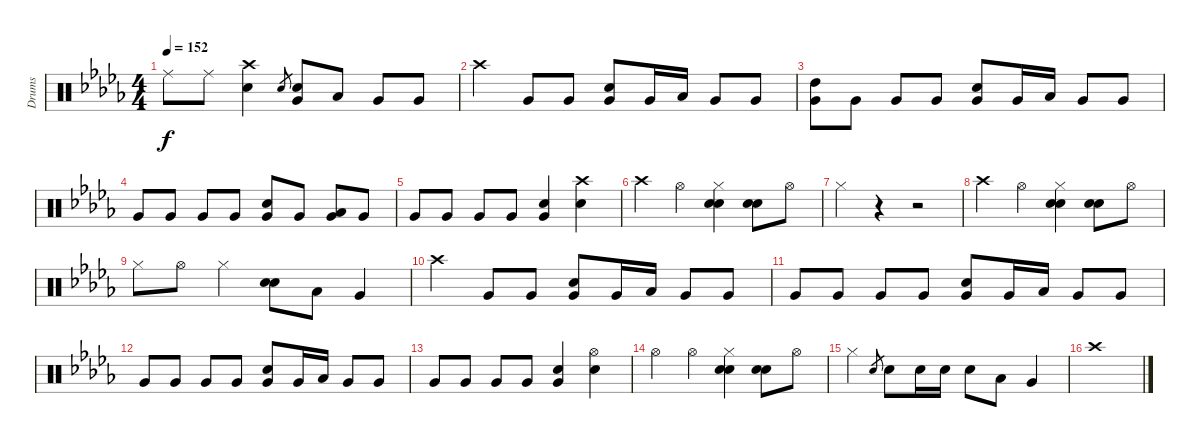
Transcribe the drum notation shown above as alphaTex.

\track ("Drums" "Drums") {instrument percussion}
\staff {score}
\articulation defaults
\ts (4 4)
\tempo 152
\clef neutral
\ks db "Ride (middle)".8{dy f} "Ride (middle)".8
("Crash high (hit)" "Snare (hit) 2").4 "Snare (hit) 2".8{gr} ("Snare (hit) 2" "Very Low Tom (hit)").8 "Low Tom (hit)".8 "Very Low Tom (hit)".8 "Very Low Tom (hit)".8 |
"Crash high (hit)".4 "Very Low Tom (hit)".8 "Very Low Tom (hit)".8 ("Snare (hit) 2" "Very Low Tom (hit)").8 "Very Low Tom (hit)".16 "Low Tom (hit)".16 "Very Low Tom (hit)".8 "Very Low Tom (hit)".8 |
("High Tom (hit)" "Very Low Tom (hit)").8 "Very Low Tom (hit)".8 "Very Low Tom (hit)".8 "Very Low Tom (hit)".8 ("Snare (hit) 2" "Very Low Tom (hit)").8 "Very Low Tom (hit)".16 "Low Tom (hit)".16 "Very Low Tom (hit)".8 "Very Low Tom (hit)".8 |
"Very Low Tom (hit)".8 "Very Low Tom (hit)".8 "Very Low Tom (hit)".8 "Very Low Tom (hit)".8 ("Snare (hit) 2" "Very Low Tom (hit)").8 "Very Low Tom (hit)".8 ("Low Tom (hit)" "Very Low Tom (hit)").8 "Very Low Tom (hit)".8 |
"Very Low Tom (hit)".8 "Very Low Tom (hit)".8 "Very Low Tom (hit)".8 "Very Low Tom (hit)".8 ("Snare (hit) 2" "Very Low Tom (hit)").4 ("Crash high (hit)" "Snare (hit) 2").4 |
"Crash high (hit)".4 "Hi-Hat (open)".4 ("Hi-Hat (closed)" "Snare (hit) 2" "Snare (hit) 2").4 ("Snare (hit) 2" "Snare (hit) 2").8 "Hi-Hat (open)".8 |
"Hi-Hat (closed)".4 r.4 r.2 |
"Crash high (hit)".4 "Hi-Hat (open)".4 ("Hi-Hat (closed)" "Snare (hit) 2" "Snare (hit) 2").4 ("Snare (hit) 2" "Snare (hit) 2").8 "Hi-Hat (open)".8 |
"Hi-Hat (closed)".8 "Hi-Hat (open)".8 "Hi-Hat (closed)".4 ("Snare (hit) 2" "Snare (hit) 2").8 "Low Tom (hit)".8 "Very Low Tom (hit)".4 |
"Crash high (hit)".4 "Very Low Tom (hit)".8 "Very Low Tom (hit)".8 ("Snare (hit) 2" "Very Low Tom (hit)").8 "Very Low Tom (hit)".16 "Low Tom (hit)".16 "Very Low Tom (hit)".8 "Very Low Tom (hit)".8 |
"Very Low Tom (hit)".8 "Very Low Tom (hit)".8 "Very Low Tom (hit)".8 "Very Low Tom (hit)".8 ("Snare (hit) 2" "Very Low Tom (hit)").8 "Very Low Tom (hit)".16 "Low Tom (hit)".16 "Very Low Tom (hit)".8 "Very Low Tom (hit)".8 |
"Very Low Tom (hit)".8 "Very Low Tom (hit)".8 "Very Low Tom (hit)".8 "Very Low Tom (hit)".8 ("Snare (hit) 2" "Very Low Tom (hit)").8 "Very Low Tom (hit)".16 "Low Tom (hit)".16 "Very Low Tom (hit)".8 "Very Low Tom (hit)".8 |
"Very Low Tom (hit)".8 "Very Low Tom (hit)".8 "Very Low Tom (hit)".8 "Very Low Tom (hit)".8 ("Snare (hit) 2" "Very Low Tom (hit)").4 ("Hi-Hat (open)" "Snare (hit) 2").4 |
"Hi-Hat (open)".4 "Hi-Hat (open)".4 ("Hi-Hat (closed)" "Snare (hit) 2" "Snare (hit) 2").4 ("Snare (hit) 2" "Snare (hit) 2").8 "Hi-Hat (open)".8 |
"Hi-Hat (closed)".4 "Snare (hit) 2".8{gr} "Snare (hit) 2".8 "Snare (hit) 2".16 "Snare (hit) 2".16 "Snare (hit) 2".8 "Low Tom (hit)".8 "Very Low Tom (hit)".4 |
"Crash high (hit)".1
